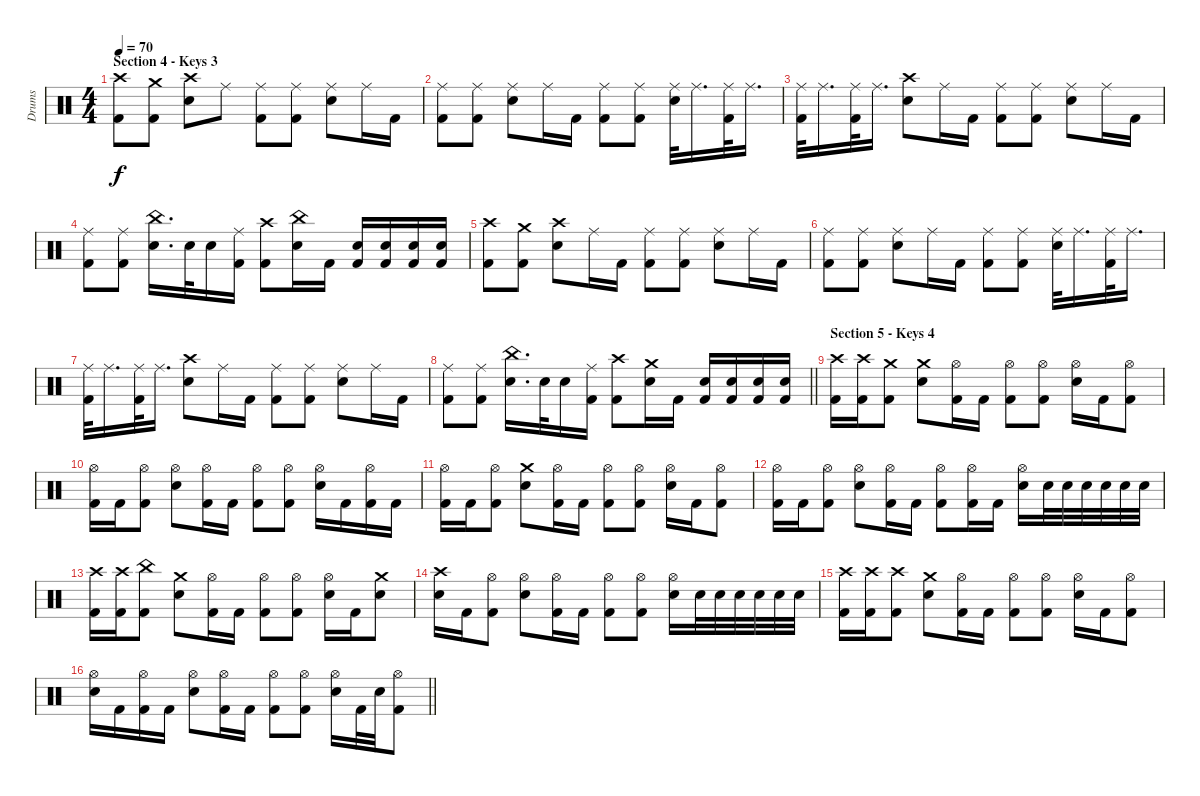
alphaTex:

\track ("Drums" "Drums") {instrument percussion}
\staff {score}
\articulation defaults
\ts (4 4)
\section ("" "Section 4 - Keys 3")
\tempo 70
\clef neutral
\ks c
("Crash high (hit)" "Kick (hit) 2").8{dy f} ("Crash medium (hit)" "Kick (hit) 2").8 ("Crash high (hit)" "Electric Snare (hit)").8 "Ride (middle)".8 ("Ride (middle)" "Kick (hit) 2").8 ("Ride (middle)" "Kick (hit) 2").8 ("Ride (middle)" "Electric Snare (hit)").8 "Ride (middle)".16 "Kick (hit) 2".16 |
("Ride (middle)" "Kick (hit) 2").8 ("Ride (middle)" "Kick (hit) 2").8 ("Ride (middle)" "Electric Snare (hit)").8 "Ride (middle)".16 "Kick (hit) 2".16 ("Ride (middle)" "Kick (hit) 2").8 ("Ride (middle)" "Kick (hit) 2").8 ("Ride (middle)" "Electric Snare (hit)").32 "Ride (middle)".16{d} ("Ride (middle)" "Kick (hit) 2").32 "Ride (middle)".16{d} |
("Ride (middle)" "Kick (hit) 2").32 "Ride (middle)".16{d} ("Ride (middle)" "Kick (hit) 2").32 "Ride (middle)".16{d} ("Crash high (hit)" "Electric Snare (hit)").8 "Ride (middle)".16 "Kick (hit) 2".16 ("Ride (middle)" "Kick (hit) 2").8 ("Ride (middle)" "Kick (hit) 2").8 ("Ride (middle)" "Electric Snare (hit)").8 "Ride (middle)".16 "Kick (hit) 2".16 |
("Ride (middle)" "Kick (hit) 2").8 ("Ride (middle)" "Kick (hit) 2").8 ("China (hit)" "Electric Snare (hit)").16{d} "Electric Snare (hit)".32 "Electric Snare (hit)".16 ("Ride (middle)" "Kick (hit) 2").16 ("Crash high (hit)" "Kick (hit) 2").8 ("China (hit)" "Electric Snare (hit)").16 "Kick (hit) 2".16 ("Electric Snare (hit)" "Kick (hit) 2").16 ("Electric Snare (hit)" "Kick (hit) 2").16 ("Electric Snare (hit)" "Kick (hit) 2").16 ("Electric Snare (hit)" "Kick (hit) 2").16 |
("Crash high (hit)" "Kick (hit) 2").8 ("Crash medium (hit)" "Kick (hit) 2").8 ("Crash high (hit)" "Electric Snare (hit)").8 "Ride (middle)".16 "Kick (hit) 2".16 ("Ride (middle)" "Kick (hit) 2").8 ("Ride (middle)" "Kick (hit) 2").8 ("Ride (middle)" "Electric Snare (hit)").8 "Ride (middle)".16 "Kick (hit) 2".16 |
("Ride (middle)" "Kick (hit) 2").8 ("Ride (middle)" "Kick (hit) 2").8 ("Ride (middle)" "Electric Snare (hit)").8 "Ride (middle)".16 "Kick (hit) 2".16 ("Ride (middle)" "Kick (hit) 2").8 ("Ride (middle)" "Kick (hit) 2").8 ("Ride (middle)" "Electric Snare (hit)").32 "Ride (middle)".16{d} ("Ride (middle)" "Kick (hit) 2").32 "Ride (middle)".16{d} |
("Ride (middle)" "Kick (hit) 2").32 "Ride (middle)".16{d} ("Ride (middle)" "Kick (hit) 2").32 "Ride (middle)".16{d} ("Crash high (hit)" "Electric Snare (hit)").8 "Ride (middle)".16 "Kick (hit) 2".16 ("Ride (middle)" "Kick (hit) 2").8 ("Ride (middle)" "Kick (hit) 2").8 ("Ride (middle)" "Electric Snare (hit)").8 "Ride (middle)".16 "Kick (hit) 2".16 |
\barLineRight lightlight
("Ride (middle)" "Kick (hit) 2").8 ("Ride (middle)" "Kick (hit) 2").8 ("China (hit)" "Electric Snare (hit)").16{d} "Electric Snare (hit)".32 "Electric Snare (hit)".16 ("Ride (middle)" "Kick (hit) 2").16 ("Crash high (hit)" "Kick (hit) 2").8 ("Crash medium (hit)" "Electric Snare (hit)").16 "Kick (hit) 2".16 ("Electric Snare (hit)" "Kick (hit) 2").16 ("Electric Snare (hit)" "Kick (hit) 2").16 ("Electric Snare (hit)" "Kick (hit) 2").16 ("Electric Snare (hit)" "Kick (hit) 2").16 |
\section ("" "Section 5 - Keys 4")
("Crash high (hit)" "Kick (hit) 2").16 ("Crash high (hit)" "Kick (hit) 2").16 ("Crash medium (hit)" "Kick (hit) 2").8 ("Crash medium (hit)" "Electric Snare (hit)").8 ("Hi-Hat (open)" "Kick (hit) 2").16 "Kick (hit) 2".16 ("Hi-Hat (open)" "Kick (hit) 2").8 ("Hi-Hat (open)" "Kick (hit) 2").8 ("Hi-Hat (open)" "Electric Snare (hit)").16 "Kick (hit) 2".16 ("Hi-Hat (open)" "Kick (hit) 2").8 |
("Hi-Hat (open)" "Kick (hit) 2").16 "Kick (hit) 2".16 ("Hi-Hat (open)" "Kick (hit) 2").8 ("Hi-Hat (open)" "Electric Snare (hit)").8 ("Hi-Hat (open)" "Kick (hit) 2").16 "Kick (hit) 2".16 ("Hi-Hat (open)" "Kick (hit) 2").8 ("Hi-Hat (open)" "Kick (hit) 2").8 ("Hi-Hat (open)" "Electric Snare (hit)").16 "Kick (hit) 2".16 ("Hi-Hat (open)" "Kick (hit) 2").16 "Kick (hit) 2".16 |
("Hi-Hat (open)" "Kick (hit) 2").16 "Kick (hit) 2".16 ("Hi-Hat (open)" "Kick (hit) 2").8 ("Crash medium (hit)" "Electric Snare (hit)").8 ("Hi-Hat (open)" "Kick (hit) 2").16 "Kick (hit) 2".16 ("Hi-Hat (open)" "Kick (hit) 2").8 ("Hi-Hat (open)" "Kick (hit) 2").8 ("Hi-Hat (open)" "Electric Snare (hit)").16 "Kick (hit) 2".16 ("Hi-Hat (open)" "Kick (hit) 2").8 |
("Hi-Hat (open)" "Kick (hit) 2").16 "Kick (hit) 2".16 ("Hi-Hat (open)" "Kick (hit) 2").8 ("Hi-Hat (open)" "Electric Snare (hit)").8 ("Hi-Hat (open)" "Kick (hit) 2").16 "Kick (hit) 2".16 ("Hi-Hat (open)" "Kick (hit) 2").8 ("Hi-Hat (open)" "Kick (hit) 2").16 "Kick (hit) 2".16 ("Hi-Hat (open)" "Electric Snare (hit)").16 "Electric Snare (hit)".32 "Electric Snare (hit)".32 "Electric Snare (hit)".32 "Electric Snare (hit)".32 "Electric Snare (hit)".32 "Electric Snare (hit)".32 |
("Crash high (hit)" "Kick (hit) 2").16 ("Crash high (hit)" "Kick (hit) 2").16 ("China (hit)" "Kick (hit) 2").8 ("Crash medium (hit)" "Electric Snare (hit)").8 ("Hi-Hat (open)" "Kick (hit) 2").16 "Kick (hit) 2".16 ("Hi-Hat (open)" "Kick (hit) 2").8 ("Hi-Hat (open)" "Kick (hit) 2").8 ("Hi-Hat (open)" "Electric Snare (hit)").16 "Kick (hit) 2".16 ("Crash medium (hit)" "Electric Snare (hit)").8 |
("Crash high (hit)" "Electric Snare (hit)").16 "Kick (hit) 2".16 ("Hi-Hat (open)" "Kick (hit) 2").8 ("Hi-Hat (open)" "Electric Snare (hit)").8 ("Hi-Hat (open)" "Kick (hit) 2").16 "Kick (hit) 2".16 ("Hi-Hat (open)" "Kick (hit) 2").8 ("Hi-Hat (open)" "Kick (hit) 2").8 ("Hi-Hat (open)" "Electric Snare (hit)").16 "Electric Snare (hit)".32 "Electric Snare (hit)".32 "Electric Snare (hit)".32 "Electric Snare (hit)".32 "Electric Snare (hit)".32 "Electric Snare (hit)".32 |
("Crash high (hit)" "Kick (hit) 2").16 ("Crash high (hit)" "Kick (hit) 2").16 ("Crash high (hit)" "Kick (hit) 2").8 ("Crash medium (hit)" "Electric Snare (hit)").8 ("Hi-Hat (open)" "Kick (hit) 2").16 "Kick (hit) 2".16 ("Hi-Hat (open)" "Kick (hit) 2").8 ("Hi-Hat (open)" "Kick (hit) 2").8 ("Hi-Hat (open)" "Electric Snare (hit)").16 "Kick (hit) 2".16 ("Hi-Hat (open)" "Kick (hit) 2").8 |
\barLineRight lightlight
("Hi-Hat (open)" "Electric Snare (hit)").16 "Kick (hit) 2".16 ("Hi-Hat (open)" "Kick (hit) 2").16 "Kick (hit) 2".16 ("Hi-Hat (open)" "Electric Snare (hit)").8 ("Hi-Hat (open)" "Kick (hit) 2").16 "Kick (hit) 2".16 ("Hi-Hat (open)" "Kick (hit) 2").8 ("Hi-Hat (open)" "Kick (hit) 2").8 ("Hi-Hat (open)" "Electric Snare (hit)").16 "Kick (hit) 2".32 "Electric Snare (hit)".32 ("Hi-Hat (open)" "Kick (hit) 2").8
